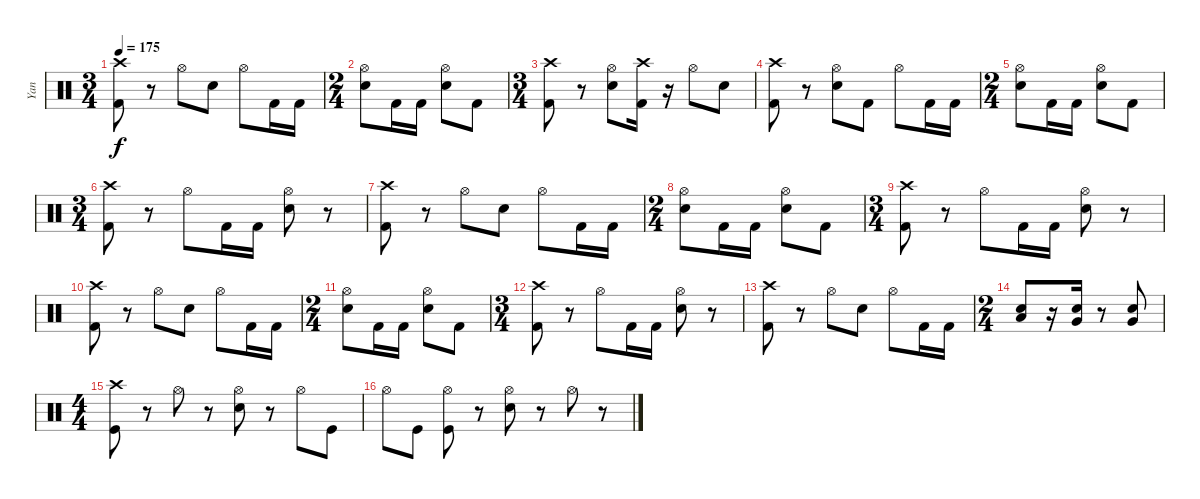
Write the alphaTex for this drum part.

\track ("Yan" "Yan") {instrument percussion}
\staff {score}
\articulation defaults
\ts (3 4)
\tempo 175
\clef neutral
\ks c
("Kick (hit) 2" "Crash high (hit)").8{dy f} r.8 "Hi-Hat (open)".8 "Electric Snare (hit)".8 "Hi-Hat (open)".8 "Kick (hit) 2".16 "Kick (hit) 2".16 |
\ts (2 4)
("Electric Snare (hit)" "Hi-Hat (open)").8 "Kick (hit) 2".16 "Kick (hit) 2".16 ("Electric Snare (hit)" "Hi-Hat (open)").8 "Kick (hit) 2".8 |
\ts (3 4)
("Kick (hit) 2" "Crash high (hit)").8 r.8 ("Electric Snare (hit)" "Hi-Hat (open)").8 ("Crash high (hit)" "Kick (hit) 2").16 r.16 "Hi-Hat (open)".8 "Electric Snare (hit)".8 |
("Kick (hit) 2" "Crash high (hit)").8 r.8 ("Electric Snare (hit)" "Hi-Hat (open)").8 "Kick (hit) 2".8 "Hi-Hat (open)".8 "Kick (hit) 2".16 "Kick (hit) 2".16 |
\ts (2 4)
("Electric Snare (hit)" "Hi-Hat (open)").8 "Kick (hit) 2".16 "Kick (hit) 2".16 ("Electric Snare (hit)" "Hi-Hat (open)").8 "Kick (hit) 2".8 |
\ts (3 4)
("Kick (hit) 2" "Crash high (hit)").8 r.8 "Hi-Hat (open)".8 "Kick (hit) 2".16 "Kick (hit) 2".16 ("Electric Snare (hit)" "Hi-Hat (open)").8 r.8 |
("Kick (hit) 2" "Crash high (hit)").8 r.8 "Hi-Hat (open)".8 "Electric Snare (hit)".8 "Hi-Hat (open)".8 "Kick (hit) 2".16 "Kick (hit) 2".16 |
\ts (2 4)
("Electric Snare (hit)" "Hi-Hat (open)").8 "Kick (hit) 2".16 "Kick (hit) 2".16 ("Electric Snare (hit)" "Hi-Hat (open)").8 "Kick (hit) 2".8 |
\ts (3 4)
("Kick (hit) 2" "Crash high (hit)").8 r.8 "Hi-Hat (open)".8 "Kick (hit) 2".16 "Kick (hit) 2".16 ("Electric Snare (hit)" "Hi-Hat (open)").8 r.8 |
("Kick (hit) 2" "Crash high (hit)").8 r.8 "Hi-Hat (open)".8 "Electric Snare (hit)".8 "Hi-Hat (open)".8 "Kick (hit) 2".16 "Kick (hit) 2".16 |
\ts (2 4)
("Electric Snare (hit)" "Hi-Hat (open)").8 "Kick (hit) 2".16 "Kick (hit) 2".16 ("Electric Snare (hit)" "Hi-Hat (open)").8 "Kick (hit) 2".8 |
\ts (3 4)
("Kick (hit) 2" "Crash high (hit)").8 r.8 "Hi-Hat (open)".8 "Kick (hit) 2".16 "Kick (hit) 2".16 ("Electric Snare (hit)" "Hi-Hat (open)").8 r.8 |
("Kick (hit) 2" "Crash high (hit)").8 r.8 "Hi-Hat (open)".8 "Electric Snare (hit)".8 "Hi-Hat (open)".8 "Kick (hit) 2".16 "Kick (hit) 2".16 |
\ts (2 4)
("Electric Snare (hit)" "Low Tom (hit)").8 r.16 ("Electric Snare (hit)" "Very Low Tom (hit)").16 r.8 ("Electric Snare (hit)" "Very Low Tom (hit)").8 |
\ts (4 4)
("Crash high (hit)" "Kick (hit)").8 r.8 "Hi-Hat (open)".8 r.8 ("Hi-Hat (open)" "Snare (hit) 2").8 r.8 "Hi-Hat (open)".8 "Kick (hit)".8 |
"Hi-Hat (open)".8 "Kick (hit)".8 ("Hi-Hat (open)" "Kick (hit)").8 r.8 ("Hi-Hat (open)" "Snare (hit) 2").8 r.8 "Hi-Hat (open)".8 r.8
